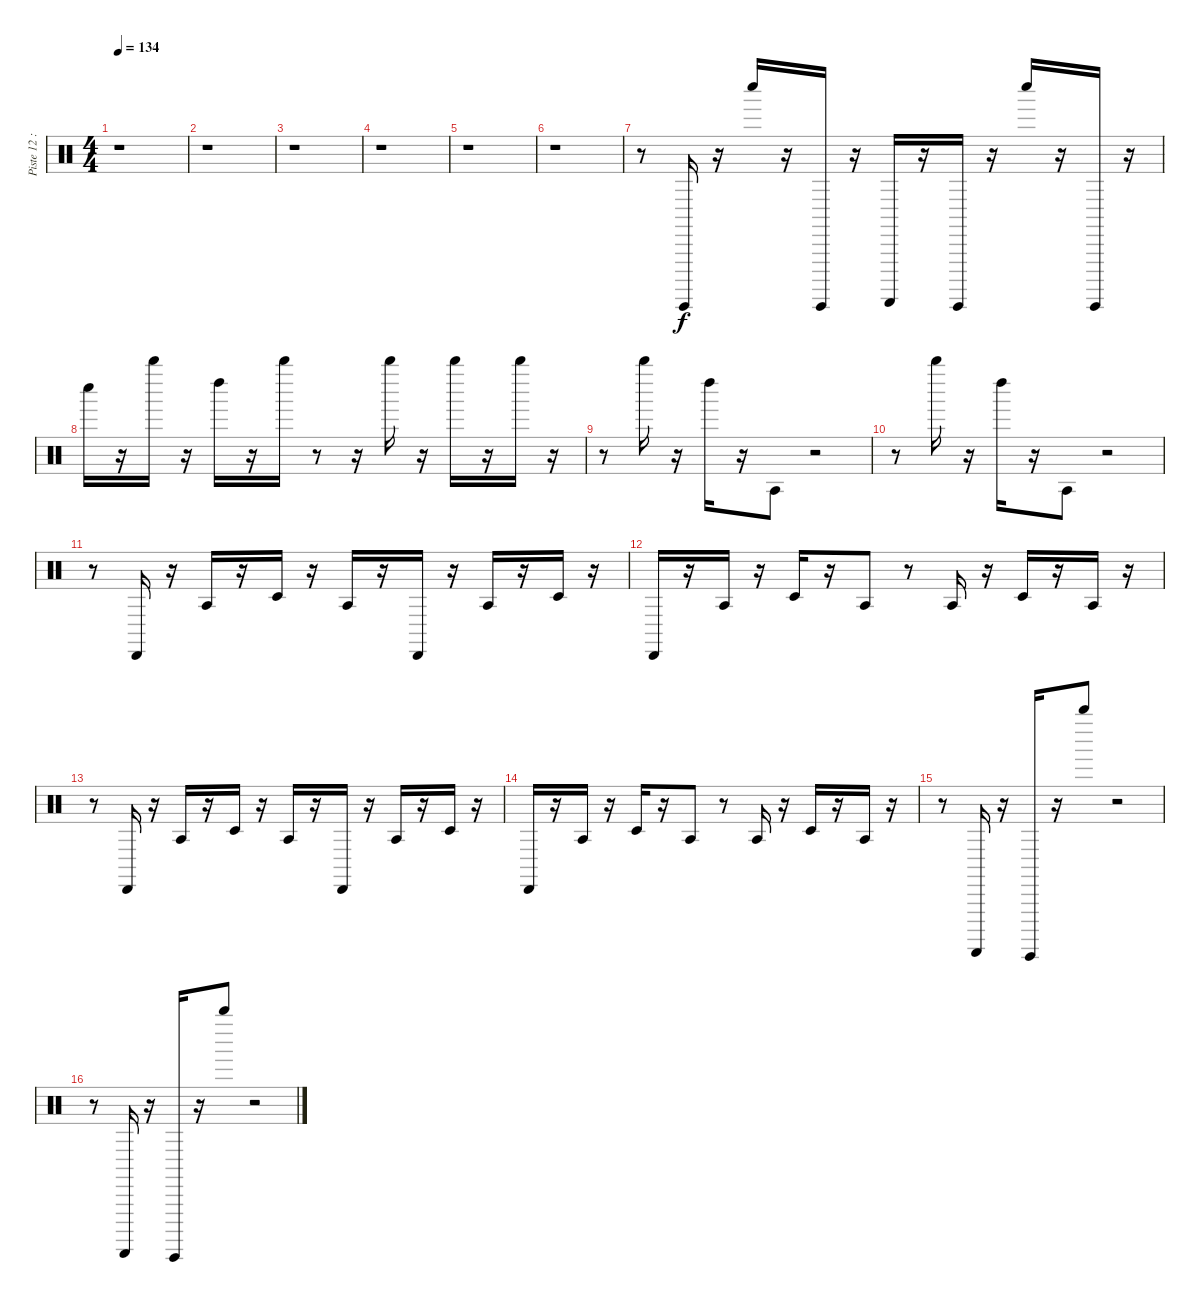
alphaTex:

\track ("Piste 12 : non précisé" "Piste 12 :") {instrument percussion}
\staff {score}
\articulation defaults
\ts (4 4)
\tempo 134
\clef neutral
\ks c
r.1{dy f} |
r.1 |
r.1 |
r.1 |
r.1 |
r.1 |
r.8 "Guiro (hit)".16 r.16 "Whistle low (hit)".16 r.16 "Guiro (hit)".16 r.16 "Guiro (scrap-return)".16 r.16 "Guiro (hit)".16 r.16 "Whistle low (hit)".16 r.16 "Guiro (hit)".16 r.16 |
"Whistle low (hit)".16 r.16 "Whistle high (hit)".16 r.16 "Left Maraca (hit)".16 r.16 "Whistle high (hit)".16 r.8 r.16 "Whistle high (hit)".16 r.16 "Whistle high (hit)".16 r.16 "Whistle high (hit)".16 r.16 |
r.8 "Whistle high (hit)".16 r.16 "Left Maraca (hit)".16 r.16 "Agogo tow (hit)".8 r.2 |
r.8 "Whistle high (hit)".16 r.16 "Left Maraca (hit)".16 r.16 "Agogo tow (hit)".8 r.2 |
r.8 "Cabasa (hit)".16 r.16 "Agogo tow (hit)".16 r.16 "Timbale low (hit)".16 r.16 "Agogo tow (hit)".16 r.16 "Cabasa (hit)".16 r.16 "Agogo tow (hit)".16 r.16 "Timbale low (hit)".16 r.16 |
"Cabasa (hit)".16 r.16 "Agogo tow (hit)".16 r.16 "Timbale low (hit)".16 r.16 "Agogo tow (hit)".8 r.8 "Agogo tow (hit)".16 r.16 "Timbale low (hit)".16 r.16 "Agogo tow (hit)".16 r.16 |
r.8 "Cabasa (hit)".16 r.16 "Agogo tow (hit)".16 r.16 "Timbale low (hit)".16 r.16 "Agogo tow (hit)".16 r.16 "Cabasa (hit)".16 r.16 "Agogo tow (hit)".16 r.16 "Timbale low (hit)".16 r.16 |
"Cabasa (hit)".16 r.16 "Agogo tow (hit)".16 r.16 "Timbale low (hit)".16 r.16 "Agogo tow (hit)".8 r.8 "Agogo tow (hit)".16 r.16 "Timbale low (hit)".16 r.16 "Agogo tow (hit)".16 r.16 |
r.8 "Guiro (scrap-return)".16 r.16 "Guiro (hit)".16 r.16 "Whistle high (hit)".8 r.2 |
r.8 "Guiro (scrap-return)".16 r.16 "Guiro (hit)".16 r.16 "Whistle high (hit)".8 r.2
